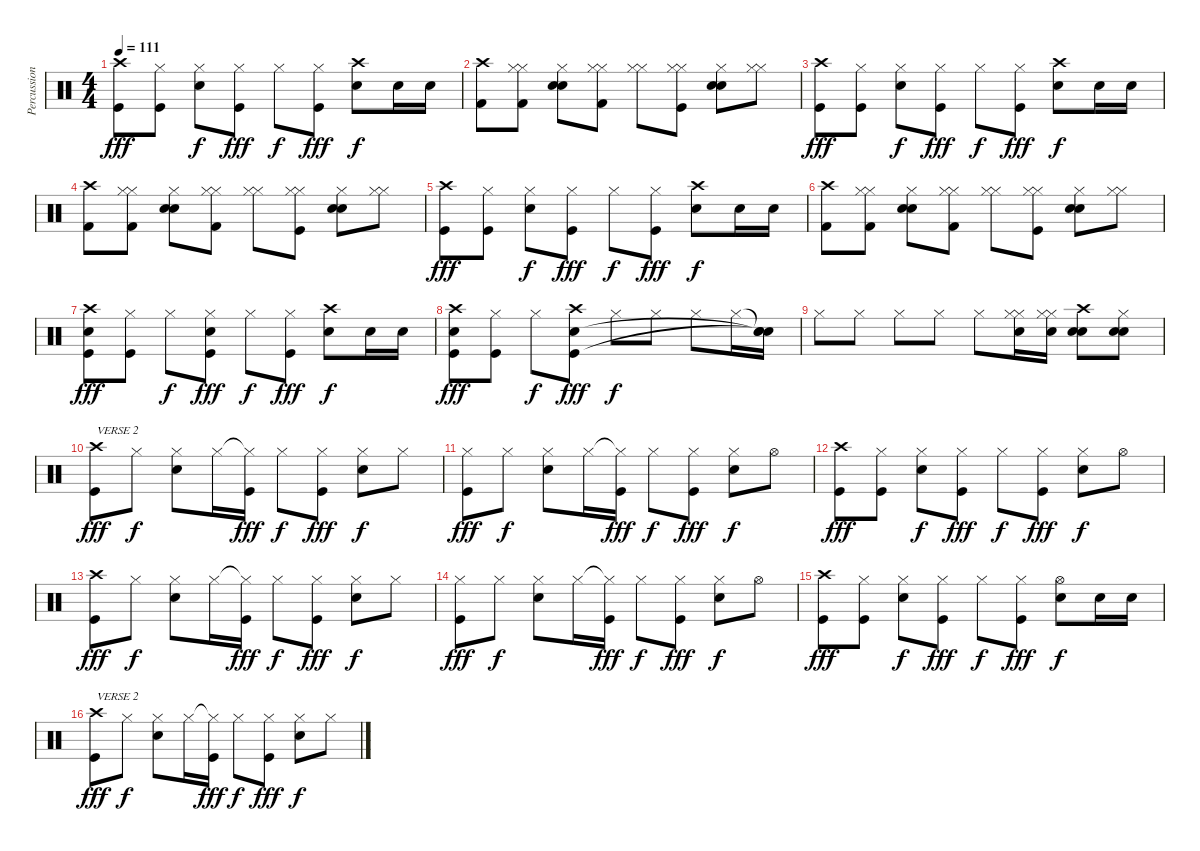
\track ("Percussion" "Percussion") {instrument percussion}
\staff {score}
\articulation defaults
\ts (4 4)
\tempo 111
\clef neutral
\ks c
("Crash high (hit)" "Kick (hit)").8{dy fff} ("Hi-Hat (closed)" "Kick (hit)").8 ("Hi-Hat (closed)" "Snare (hit) 2").8{dy f} ("Hi-Hat (closed)" "Kick (hit)").8{dy fff} "Hi-Hat (closed)".8{dy f} ("Hi-Hat (closed)" "Kick (hit)").8{dy fff} ("Crash high (hit)" "Snare (hit) 2").8{dy f} "Snare (hit) 2".16 "Snare (hit) 2".16 |
("Crash high (hit)" "Kick (hit) 2").8 ("Hi-Hat (closed)" "Hi-Hat (closed)" "Kick (hit) 2").8 ("Hi-Hat (closed)" "Snare (hit) 2" "Electric Snare (hit)").8 ("Hi-Hat (closed)" "Hi-Hat (closed)" "Kick (hit) 2").8 ("Hi-Hat (closed)" "Hi-Hat (closed)").8 ("Hi-Hat (closed)" "Hi-Hat (closed)" "Kick (hit)").8 ("Hi-Hat (closed)" "Snare (hit) 2" "Electric Snare (hit)").8 ("Hi-Hat (closed)" "Hi-Hat (closed)").8 |
("Crash high (hit)" "Kick (hit)").8{dy fff} ("Hi-Hat (closed)" "Kick (hit)").8 ("Hi-Hat (closed)" "Snare (hit) 2").8{dy f} ("Hi-Hat (closed)" "Kick (hit)").8{dy fff} "Hi-Hat (closed)".8{dy f} ("Hi-Hat (closed)" "Kick (hit)").8{dy fff} ("Crash high (hit)" "Snare (hit) 2").8{dy f} "Snare (hit) 2".16 "Snare (hit) 2".16 |
("Crash high (hit)" "Kick (hit) 2").8 ("Hi-Hat (closed)" "Hi-Hat (closed)" "Kick (hit) 2").8 ("Hi-Hat (closed)" "Snare (hit) 2" "Electric Snare (hit)").8 ("Hi-Hat (closed)" "Hi-Hat (closed)" "Kick (hit) 2").8 ("Hi-Hat (closed)" "Hi-Hat (closed)").8 ("Hi-Hat (closed)" "Hi-Hat (closed)" "Kick (hit)").8 ("Hi-Hat (closed)" "Snare (hit) 2" "Electric Snare (hit)").8 ("Hi-Hat (closed)" "Hi-Hat (closed)").8 |
("Crash high (hit)" "Kick (hit)").8{dy fff} ("Hi-Hat (closed)" "Kick (hit)").8 ("Hi-Hat (closed)" "Snare (hit) 2").8{dy f} ("Hi-Hat (closed)" "Kick (hit)").8{dy fff} "Hi-Hat (closed)".8{dy f} ("Hi-Hat (closed)" "Kick (hit)").8{dy fff} ("Crash high (hit)" "Snare (hit) 2").8{dy f} "Snare (hit) 2".16 "Snare (hit) 2".16 |
("Crash high (hit)" "Kick (hit) 2").8 ("Hi-Hat (closed)" "Hi-Hat (closed)" "Kick (hit) 2").8 ("Hi-Hat (closed)" "Snare (hit) 2" "Electric Snare (hit)").8 ("Hi-Hat (closed)" "Hi-Hat (closed)" "Kick (hit) 2").8 ("Hi-Hat (closed)" "Hi-Hat (closed)").8 ("Hi-Hat (closed)" "Hi-Hat (closed)" "Kick (hit)").8 ("Hi-Hat (closed)" "Snare (hit) 2" "Electric Snare (hit)").8 ("Hi-Hat (closed)" "Hi-Hat (closed)").8 |
("Crash high (hit)" "Snare (hit) 2" "Kick (hit)").8{dy fff} ("Hi-Hat (closed)" "Kick (hit)").8 "Hi-Hat (closed)".8{dy f} ("Hi-Hat (closed)" "Snare (hit) 2" "Kick (hit)").8{dy fff} "Hi-Hat (closed)".8{dy f} ("Hi-Hat (closed)" "Kick (hit)").8{dy fff} ("Crash high (hit)" "Snare (hit) 2").8{dy f} "Snare (hit) 2".16 "Snare (hit) 2".16 |
("Crash high (hit)" "Snare (hit) 2" "Kick (hit)").8{dy fff} ("Hi-Hat (closed)" "Kick (hit)").8 "Hi-Hat (closed)".8{dy f} ("Crash high (hit)" "Snare (hit) 2" "Kick (hit)").8{dy fff} "Hi-Hat (closed)".8{dy f} "Hi-Hat (closed)".8 "Hi-Hat (closed)".8 "Hi-Hat (closed)".16 ("Snare (hit)"{t} "Snare (hit) 2"{t} "Snare (hit)"{t}).16 |
"Hi-Hat (closed)".8 "Hi-Hat (closed)".8 "Hi-Hat (closed)".8 "Hi-Hat (closed)".8 "Hi-Hat (closed)".8 ("Hi-Hat (closed)" "Hi-Hat (closed)" "Electric Snare (hit)").16 ("Hi-Hat (closed)" "Hi-Hat (closed)" "Electric Snare (hit)").16 ("Crash high (hit)" "Snare (hit) 2" "Electric Snare (hit)").8 ("Hi-Hat (closed)" "Snare (hit) 2" "Electric Snare (hit)").8 |
("Crash high (hit)" "Kick (hit)").8{txt "VERSE 2" dy fff} "Hi-Hat (closed)".8{dy f} ("Hi-Hat (closed)" "Snare (hit) 2").8 "Hi-Hat (closed)".16 ("Hi-Hat (closed)"{t} "Kick (hit)").16{dy fff} "Hi-Hat (closed)".8{dy f} ("Hi-Hat (closed)" "Kick (hit)").8{dy fff} ("Hi-Hat (closed)" "Snare (hit) 2").8{dy f} "Hi-Hat (closed)".8 |
("Hi-Hat (closed)" "Kick (hit)").8{dy fff} "Hi-Hat (closed)".8{dy f} ("Hi-Hat (closed)" "Snare (hit) 2").8 "Hi-Hat (closed)".16 ("Hi-Hat (closed)"{t} "Kick (hit)").16{dy fff} "Hi-Hat (closed)".8{dy f} ("Hi-Hat (closed)" "Kick (hit)").8{dy fff} ("Hi-Hat (closed)" "Snare (hit) 2").8{dy f} "Hi-Hat (open)".8 |
("Crash high (hit)" "Kick (hit)").8{dy fff} ("Hi-Hat (closed)" "Kick (hit)").8 ("Hi-Hat (closed)" "Snare (hit) 2").8{dy f} ("Hi-Hat (closed)" "Kick (hit)").8{dy fff} "Hi-Hat (closed)".8{dy f} ("Hi-Hat (closed)" "Kick (hit)").8{dy fff} ("Hi-Hat (closed)" "Snare (hit) 2").8{dy f} "Hi-Hat (open)".8 |
("Crash high (hit)" "Kick (hit)").8{dy fff} "Hi-Hat (closed)".8{dy f} ("Hi-Hat (closed)" "Snare (hit) 2").8 "Hi-Hat (closed)".16 ("Hi-Hat (closed)"{t} "Kick (hit)").16{dy fff} "Hi-Hat (closed)".8{dy f} ("Hi-Hat (closed)" "Kick (hit)").8{dy fff} ("Hi-Hat (closed)" "Snare (hit) 2").8{dy f} "Hi-Hat (closed)".8 |
("Hi-Hat (closed)" "Kick (hit)").8{dy fff} "Hi-Hat (closed)".8{dy f} ("Hi-Hat (closed)" "Snare (hit) 2").8 "Hi-Hat (closed)".16 ("Hi-Hat (closed)"{t} "Kick (hit)").16{dy fff} "Hi-Hat (closed)".8{dy f} ("Hi-Hat (closed)" "Kick (hit)").8{dy fff} ("Hi-Hat (closed)" "Snare (hit) 2").8{dy f} "Hi-Hat (open)".8 |
("Crash high (hit)" "Kick (hit)").8{dy fff} ("Hi-Hat (closed)" "Kick (hit)").8 ("Hi-Hat (closed)" "Snare (hit) 2").8{dy f} ("Hi-Hat (closed)" "Kick (hit)").8{dy fff} "Hi-Hat (closed)".8{dy f} ("Hi-Hat (closed)" "Kick (hit)").8{dy fff} ("Hi-Hat (open)" "Snare (hit) 2").8{dy f} "Snare (hit) 2".16 "Snare (hit) 2".16 |
("Crash high (hit)" "Kick (hit)").8{txt "VERSE 2" dy fff} "Hi-Hat (closed)".8{dy f} ("Hi-Hat (closed)" "Snare (hit) 2").8 "Hi-Hat (closed)".16 ("Hi-Hat (closed)"{t} "Kick (hit)").16{dy fff} "Hi-Hat (closed)".8{dy f} ("Hi-Hat (closed)" "Kick (hit)").8{dy fff} ("Hi-Hat (closed)" "Snare (hit) 2").8{dy f} "Hi-Hat (closed)".8
